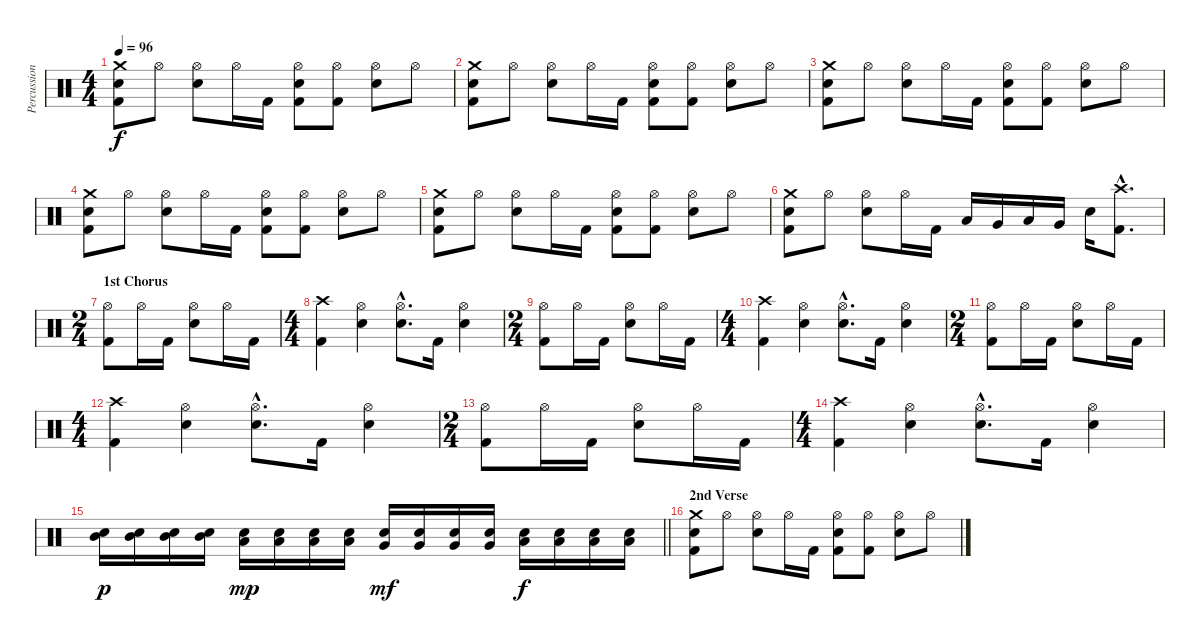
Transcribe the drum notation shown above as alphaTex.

\track ("Percussion" "Percussion") {instrument percussion}
\staff {score}
\articulation defaults
\ts (4 4)
\tempo 96
\clef neutral
\ks c
("Crash medium (hit)" "Snare (hit) 2" "Kick (hit) 2").8{dy f} "Hi-Hat (open)".8 ("Hi-Hat (open)" "Snare (hit) 2").8 "Hi-Hat (open)".16 "Kick (hit) 2".16 ("Hi-Hat (open)" "Snare (hit) 2" "Kick (hit) 2").8 ("Hi-Hat (open)" "Kick (hit) 2").8 ("Hi-Hat (open)" "Snare (hit) 2").8 "Hi-Hat (open)".8 |
("Crash medium (hit)" "Snare (hit) 2" "Kick (hit) 2").8 "Hi-Hat (open)".8 ("Hi-Hat (open)" "Snare (hit) 2").8 "Hi-Hat (open)".16 "Kick (hit) 2".16 ("Hi-Hat (open)" "Snare (hit) 2" "Kick (hit) 2").8 ("Hi-Hat (open)" "Kick (hit) 2").8 ("Hi-Hat (open)" "Snare (hit) 2").8 "Hi-Hat (open)".8 |
("Crash medium (hit)" "Snare (hit) 2" "Kick (hit) 2").8 "Hi-Hat (open)".8 ("Hi-Hat (open)" "Snare (hit) 2").8 "Hi-Hat (open)".16 "Kick (hit) 2".16 ("Hi-Hat (open)" "Snare (hit) 2" "Kick (hit) 2").8 ("Hi-Hat (open)" "Kick (hit) 2").8 ("Hi-Hat (open)" "Snare (hit) 2").8 "Hi-Hat (open)".8 |
("Crash medium (hit)" "Snare (hit) 2" "Kick (hit) 2").8 "Hi-Hat (open)".8 ("Hi-Hat (open)" "Snare (hit) 2").8 "Hi-Hat (open)".16 "Kick (hit) 2".16 ("Hi-Hat (open)" "Snare (hit) 2" "Kick (hit) 2").8 ("Hi-Hat (open)" "Kick (hit) 2").8 ("Hi-Hat (open)" "Snare (hit) 2").8 "Hi-Hat (open)".8 |
("Crash medium (hit)" "Snare (hit) 2" "Kick (hit) 2").8 "Hi-Hat (open)".8 ("Hi-Hat (open)" "Snare (hit) 2").8 "Hi-Hat (open)".16 "Kick (hit) 2".16 ("Hi-Hat (open)" "Snare (hit) 2" "Kick (hit) 2").8 ("Hi-Hat (open)" "Kick (hit) 2").8 ("Hi-Hat (open)" "Snare (hit) 2").8 "Hi-Hat (open)".8 |
("Crash medium (hit)" "Snare (hit) 2" "Kick (hit) 2").8 "Hi-Hat (open)".8 ("Hi-Hat (open)" "Snare (hit) 2").8 "Hi-Hat (open)".16 "Kick (hit) 2".16 "Low Tom (hit)".16 "Very Low Tom (hit)".16 "Low Tom (hit)".16 "Very Low Tom (hit)".16 "Snare (hit) 2".16 ("Crash high (hit)"{hac} "Kick (hit) 2"{hac}).8{d} |
\ts (2 4)
\section ("" "1st Chorus")
("Hi-Hat (open)" "Kick (hit) 2").8 "Hi-Hat (open)".16 "Kick (hit) 2".16 ("Hi-Hat (open)" "Snare (hit) 2").8 "Hi-Hat (open)".16 "Kick (hit) 2".16 |
\ts (4 4)
("Crash high (hit)" "Kick (hit) 2").4 ("Hi-Hat (open)" "Snare (hit) 2").4 ("Hi-Hat (open)"{hac} "Snare (hit) 2"{hac}).8{d} "Kick (hit) 2".16 ("Hi-Hat (open)" "Snare (hit) 2").4 |
\ts (2 4)
("Hi-Hat (open)" "Kick (hit) 2").8 "Hi-Hat (open)".16 "Kick (hit) 2".16 ("Hi-Hat (open)" "Snare (hit) 2").8 "Hi-Hat (open)".16 "Kick (hit) 2".16 |
\ts (4 4)
("Crash high (hit)" "Kick (hit) 2").4 ("Hi-Hat (open)" "Snare (hit) 2").4 ("Hi-Hat (open)"{hac} "Snare (hit) 2"{hac}).8{d} "Kick (hit) 2".16 ("Hi-Hat (open)" "Snare (hit) 2").4 |
\ts (2 4)
("Hi-Hat (open)" "Kick (hit) 2").8 "Hi-Hat (open)".16 "Kick (hit) 2".16 ("Hi-Hat (open)" "Snare (hit) 2").8 "Hi-Hat (open)".16 "Kick (hit) 2".16 |
\ts (4 4)
("Crash high (hit)" "Kick (hit) 2").4 ("Hi-Hat (open)" "Snare (hit) 2").4 ("Hi-Hat (open)"{hac} "Snare (hit) 2"{hac}).8{d} "Kick (hit) 2".16 ("Hi-Hat (open)" "Snare (hit) 2").4 |
\ts (2 4)
("Hi-Hat (open)" "Kick (hit) 2").8 "Hi-Hat (open)".16 "Kick (hit) 2".16 ("Hi-Hat (open)" "Snare (hit) 2").8 "Hi-Hat (open)".16 "Kick (hit) 2".16 |
\ts (4 4)
("Crash high (hit)" "Kick (hit) 2").4 ("Hi-Hat (open)" "Snare (hit) 2").4 ("Hi-Hat (open)"{hac} "Snare (hit) 2"{hac}).8{d} "Kick (hit) 2".16 ("Hi-Hat (open)" "Snare (hit) 2").4 |
\barLineRight lightlight
("Snare (hit) 2" "Mid Tom (hit)").16{dy p} ("Snare (hit) 2" "Mid Tom (hit)").16 ("Snare (hit) 2" "Mid Tom (hit)").16 ("Snare (hit) 2" "Mid Tom (hit)").16 ("Snare (hit) 2" "Low Tom (hit)").16{dy mp} ("Snare (hit) 2" "Low Tom (hit)").16 ("Snare (hit) 2" "Low Tom (hit)").16 ("Snare (hit) 2" "Low Tom (hit)").16 ("Snare (hit) 2" "Very Low Tom (hit)").16{dy mf} ("Snare (hit) 2" "Very Low Tom (hit)").16 ("Snare (hit) 2" "Very Low Tom (hit)").16 ("Snare (hit) 2" "Very Low Tom (hit)").16 ("Snare (hit) 2" "Low Floor Tom (hit)").16{dy f} ("Snare (hit) 2" "Low Floor Tom (hit)").16 ("Snare (hit) 2" "Low Floor Tom (hit)").16 ("Snare (hit) 2" "Low Floor Tom (hit)").16 |
\section ("" "2nd Verse")
("Crash medium (hit)" "Snare (hit) 2" "Kick (hit) 2").8 "Hi-Hat (open)".8 ("Hi-Hat (open)" "Snare (hit) 2").8 "Hi-Hat (open)".16 "Kick (hit) 2".16 ("Hi-Hat (open)" "Snare (hit) 2" "Kick (hit) 2").8 ("Hi-Hat (open)" "Kick (hit) 2").8 ("Hi-Hat (open)" "Snare (hit) 2").8 "Hi-Hat (open)".8
